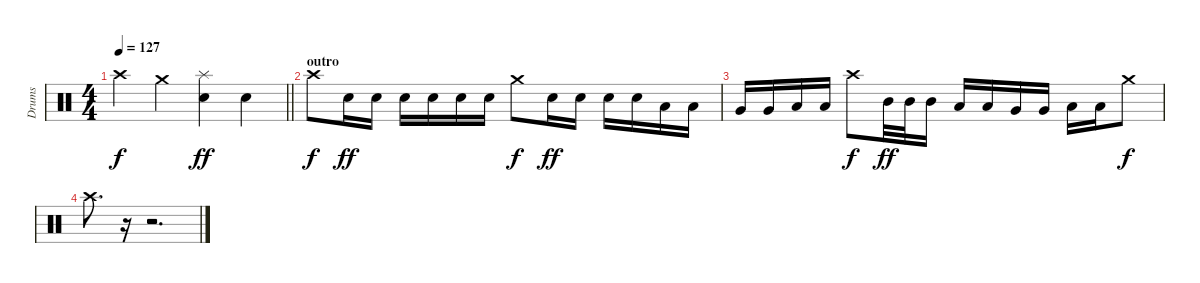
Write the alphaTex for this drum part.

\track ("Drums" "Drums") {instrument percussion}
\staff {score}
\articulation defaults
\ts (4 4)
\tempo 127
\clef neutral
\barLineRight lightlight
\ks c "Crash high (hit)".4{dy f} "Crash medium (hit)".4
("Splash (hit)" "Snare (hit) 2").4{dy ff} "Snare (hit) 2".4 |
\section ("" "outro")
"Crash high (hit)".8{dy f} "Snare (hit) 2".16{dy ff} "Snare (hit) 2".16 "Snare (hit) 2".16 "Snare (hit) 2".16 "Snare (hit) 2".16 "Snare (hit) 2".16 "Crash medium (hit)".8{dy f} "Snare (hit) 2".16{dy ff} "Snare (hit) 2".16 "Snare (hit) 2".16 "Snare (hit) 2".16 "Low Tom (hit)".16 "Low Tom (hit)".16 |
"Very Low Tom (hit)".16 "Very Low Tom (hit)".16 "Low Floor Tom (hit)".16 "Low Floor Tom (hit)".16 "Crash high (hit)".8{dy f} "Mid Tom (hit)".32{dy ff} "Mid Tom (hit)".32 "Mid Tom (hit)".16 "Low Tom (hit)".16 "Low Tom (hit)".16 "Very Low Tom (hit)".16 "Very Low Tom (hit)".16 "Low Floor Tom (hit)".16 "Low Floor Tom (hit)".16 "Crash medium (hit)".8{dy f} |
"Crash high (hit)".8{d} r.16{volume 0} r.2{d}
